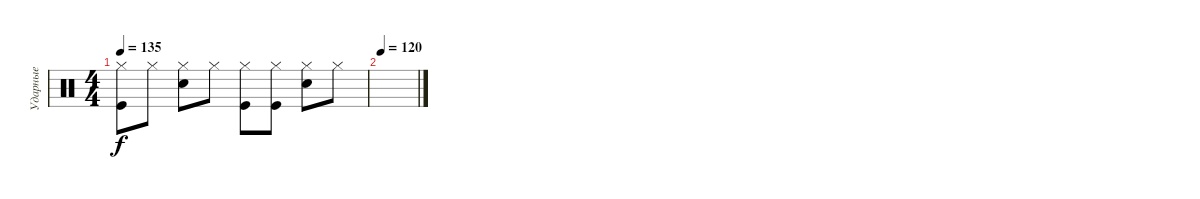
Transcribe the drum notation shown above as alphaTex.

\track ("Ударные" "Ударные") {instrument percussion}
\staff {score}
\articulation defaults
\ts (4 4)
\tempo 135
\clef neutral
\ks c
("Hi-Hat (closed)" "Kick (hit)").8{dy f} "Hi-Hat (closed)".8 ("Hi-Hat (closed)" "Electric Snare (hit)").8 "Hi-Hat (closed)".8 ("Hi-Hat (closed)" "Kick (hit)").8 ("Hi-Hat (closed)" "Kick (hit)").8 ("Hi-Hat (closed)" "Electric Snare (hit)").8 "Hi-Hat (closed)".8 |
\tempo 120
